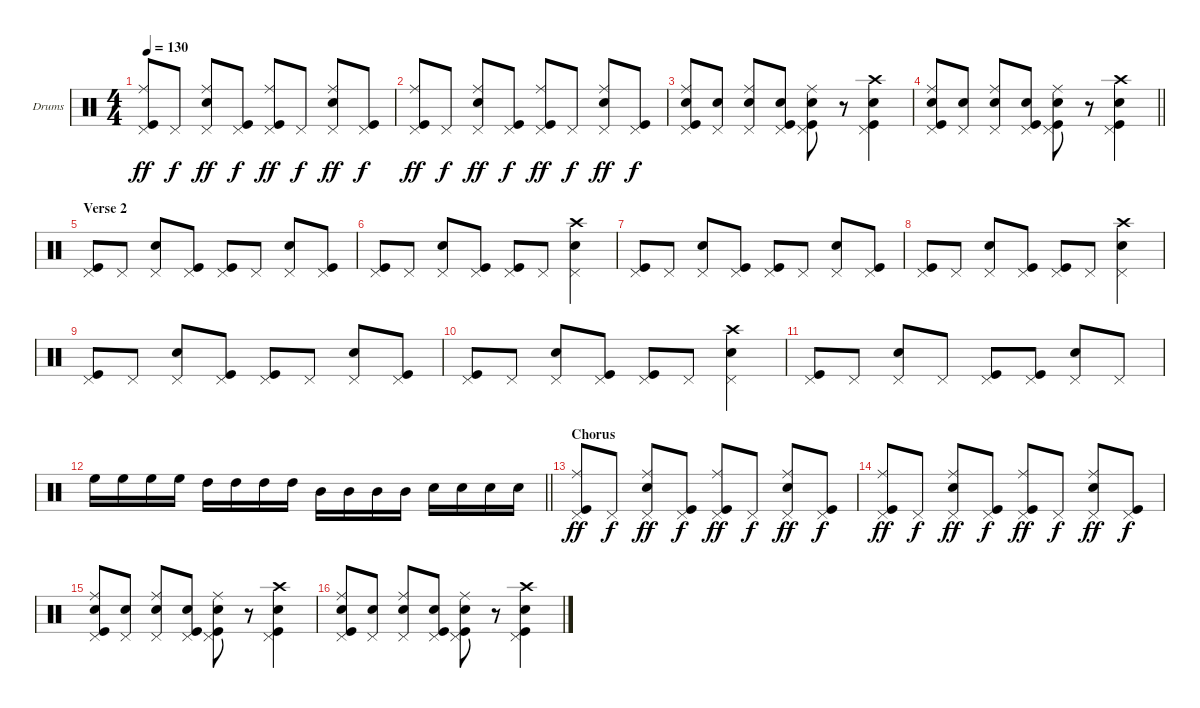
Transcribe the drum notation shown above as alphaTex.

\bracketExtendMode groupsimilarinstruments
\firstSystemTrackNameOrientation horizontal
\otherSystemsTrackNameOrientation horizontal
\track ("Drumkit" "Drums") {instrument percussion}
\staff {score}
\articulation defaults
\ts (4 4)
\tempo 130
\clef neutral
\ks c
("Ride (middle)" "Pedal Hi-Hat (hit)" "Kick (hit)").8{dy ff} "Pedal Hi-Hat (hit)".8{dy f} ("Ride (middle)" "Snare (hit) 2" "Pedal Hi-Hat (hit)").8{dy ff} ("Pedal Hi-Hat (hit)" "Kick (hit)").8{dy f} ("Ride (middle)" "Pedal Hi-Hat (hit)" "Kick (hit)").8{dy ff} "Pedal Hi-Hat (hit)".8{dy f} ("Ride (middle)" "Snare (hit) 2" "Pedal Hi-Hat (hit)").8{dy ff} ("Pedal Hi-Hat (hit)" "Kick (hit)").8{dy f} |
("Ride (middle)" "Pedal Hi-Hat (hit)" "Kick (hit)").8{dy ff} "Pedal Hi-Hat (hit)".8{dy f} ("Ride (middle)" "Snare (hit) 2" "Pedal Hi-Hat (hit)").8{dy ff} ("Pedal Hi-Hat (hit)" "Kick (hit)").8{dy f} ("Ride (middle)" "Pedal Hi-Hat (hit)" "Kick (hit)").8{dy ff} "Pedal Hi-Hat (hit)".8{dy f} ("Ride (middle)" "Snare (hit) 2" "Pedal Hi-Hat (hit)").8{dy ff} ("Pedal Hi-Hat (hit)" "Kick (hit)").8{dy f} |
("Ride (middle)" "Pedal Hi-Hat (hit)" "Snare (hit) 2" "Kick (hit)").8 ("Pedal Hi-Hat (hit)" "Snare (hit) 2").8 ("Ride (middle)" "Pedal Hi-Hat (hit)" "Snare (hit) 2").8 ("Pedal Hi-Hat (hit)" "Snare (hit) 2" "Kick (hit)").8 ("Ride (middle)" "Pedal Hi-Hat (hit)" "Snare (hit) 2" "Kick (hit)").8 r.8 ("Crash high (hit)" "Pedal Hi-Hat (hit)" "Snare (hit) 2" "Kick (hit)").4 |
\barLineRight lightlight
("Ride (middle)" "Pedal Hi-Hat (hit)" "Snare (hit) 2" "Kick (hit)").8 ("Pedal Hi-Hat (hit)" "Snare (hit) 2").8 ("Ride (middle)" "Pedal Hi-Hat (hit)" "Snare (hit) 2").8 ("Pedal Hi-Hat (hit)" "Snare (hit) 2" "Kick (hit)").8 ("Ride (middle)" "Pedal Hi-Hat (hit)" "Snare (hit) 2" "Kick (hit)").8 r.8 ("Crash high (hit)" "Pedal Hi-Hat (hit)" "Snare (hit) 2" "Kick (hit)").4 |
\section ("" "Verse 2")
("Pedal Hi-Hat (hit)" "Kick (hit)").8 "Pedal Hi-Hat (hit)".8 ("Snare (hit) 2" "Pedal Hi-Hat (hit)").8 ("Pedal Hi-Hat (hit)" "Kick (hit)").8 ("Pedal Hi-Hat (hit)" "Kick (hit)").8 "Pedal Hi-Hat (hit)".8 ("Snare (hit) 2" "Pedal Hi-Hat (hit)").8 ("Pedal Hi-Hat (hit)" "Kick (hit)").8 |
("Pedal Hi-Hat (hit)" "Kick (hit)").8 "Pedal Hi-Hat (hit)".8 ("Snare (hit) 2" "Pedal Hi-Hat (hit)").8 ("Pedal Hi-Hat (hit)" "Kick (hit)").8 ("Pedal Hi-Hat (hit)" "Kick (hit)").8 "Pedal Hi-Hat (hit)".8 ("Crash high (hit)" "Snare (hit) 2" "Pedal Hi-Hat (hit)").4 |
("Pedal Hi-Hat (hit)" "Kick (hit)").8 "Pedal Hi-Hat (hit)".8 ("Snare (hit) 2" "Pedal Hi-Hat (hit)").8 ("Pedal Hi-Hat (hit)" "Kick (hit)").8 ("Pedal Hi-Hat (hit)" "Kick (hit)").8 "Pedal Hi-Hat (hit)".8 ("Snare (hit) 2" "Pedal Hi-Hat (hit)").8 ("Pedal Hi-Hat (hit)" "Kick (hit)").8 |
("Pedal Hi-Hat (hit)" "Kick (hit)").8 "Pedal Hi-Hat (hit)".8 ("Snare (hit) 2" "Pedal Hi-Hat (hit)").8 ("Pedal Hi-Hat (hit)" "Kick (hit)").8 ("Pedal Hi-Hat (hit)" "Kick (hit)").8 "Pedal Hi-Hat (hit)".8 ("Crash high (hit)" "Snare (hit) 2" "Pedal Hi-Hat (hit)").4 |
("Pedal Hi-Hat (hit)" "Kick (hit)").8 "Pedal Hi-Hat (hit)".8 ("Snare (hit) 2" "Pedal Hi-Hat (hit)").8 ("Pedal Hi-Hat (hit)" "Kick (hit)").8 ("Pedal Hi-Hat (hit)" "Kick (hit)").8 "Pedal Hi-Hat (hit)".8 ("Snare (hit) 2" "Pedal Hi-Hat (hit)").8 ("Pedal Hi-Hat (hit)" "Kick (hit)").8 |
("Pedal Hi-Hat (hit)" "Kick (hit)").8 "Pedal Hi-Hat (hit)".8 ("Snare (hit) 2" "Pedal Hi-Hat (hit)").8 ("Pedal Hi-Hat (hit)" "Kick (hit)").8 ("Pedal Hi-Hat (hit)" "Kick (hit)").8 "Pedal Hi-Hat (hit)".8 ("Crash high (hit)" "Snare (hit) 2" "Pedal Hi-Hat (hit)").4 |
("Pedal Hi-Hat (hit)" "Kick (hit)").8 "Pedal Hi-Hat (hit)".8 ("Snare (hit) 2" "Pedal Hi-Hat (hit)").8 "Pedal Hi-Hat (hit)".8 ("Pedal Hi-Hat (hit)" "Kick (hit)").8 ("Pedal Hi-Hat (hit)" "Kick (hit)").8 ("Snare (hit) 2" "Pedal Hi-Hat (hit)").8 "Pedal Hi-Hat (hit)".8 |
\barLineRight lightlight "High Floor Tom (hit)".16 "High Floor Tom (hit)".16 "High Floor Tom (hit)".16 "High Floor Tom (hit)".16 "High Tom (hit)".16 "High Tom (hit)".16 "High Tom (hit)".16 "High Tom (hit)".16 "Mid Tom (hit)".16 "Mid Tom (hit)".16 "Mid Tom (hit)".16 "Mid Tom (hit)".16 "Snare (hit) 2".16 "Snare (hit) 2".16 "Snare (hit) 2".16 "Snare (hit) 2".16
|
\section ("" "Chorus")
("Ride (middle)" "Pedal Hi-Hat (hit)" "Kick (hit)").8{dy ff} "Pedal Hi-Hat (hit)".8{dy f} ("Ride (middle)" "Snare (hit) 2" "Pedal Hi-Hat (hit)").8{dy ff} ("Pedal Hi-Hat (hit)" "Kick (hit)").8{dy f} ("Ride (middle)" "Pedal Hi-Hat (hit)" "Kick (hit)").8{dy ff} "Pedal Hi-Hat (hit)".8{dy f} ("Ride (middle)" "Snare (hit) 2" "Pedal Hi-Hat (hit)").8{dy ff} ("Pedal Hi-Hat (hit)" "Kick (hit)").8{dy f} |
("Ride (middle)" "Pedal Hi-Hat (hit)" "Kick (hit)").8{dy ff} "Pedal Hi-Hat (hit)".8{dy f} ("Ride (middle)" "Snare (hit) 2" "Pedal Hi-Hat (hit)").8{dy ff} ("Pedal Hi-Hat (hit)" "Kick (hit)").8{dy f} ("Ride (middle)" "Pedal Hi-Hat (hit)" "Kick (hit)").8{dy ff} "Pedal Hi-Hat (hit)".8{dy f} ("Ride (middle)" "Snare (hit) 2" "Pedal Hi-Hat (hit)").8{dy ff} ("Pedal Hi-Hat (hit)" "Kick (hit)").8{dy f} |
("Ride (middle)" "Pedal Hi-Hat (hit)" "Snare (hit) 2" "Kick (hit)").8 ("Pedal Hi-Hat (hit)" "Snare (hit) 2").8 ("Ride (middle)" "Pedal Hi-Hat (hit)" "Snare (hit) 2").8 ("Pedal Hi-Hat (hit)" "Snare (hit) 2" "Kick (hit)").8 ("Ride (middle)" "Pedal Hi-Hat (hit)" "Snare (hit) 2" "Kick (hit)").8 r.8 ("Crash high (hit)" "Pedal Hi-Hat (hit)" "Snare (hit) 2" "Kick (hit)").4 |
("Ride (middle)" "Pedal Hi-Hat (hit)" "Snare (hit) 2" "Kick (hit)").8 ("Pedal Hi-Hat (hit)" "Snare (hit) 2").8 ("Ride (middle)" "Pedal Hi-Hat (hit)" "Snare (hit) 2").8 ("Pedal Hi-Hat (hit)" "Snare (hit) 2" "Kick (hit)").8 ("Ride (middle)" "Pedal Hi-Hat (hit)" "Snare (hit) 2" "Kick (hit)").8 r.8 ("Crash high (hit)" "Pedal Hi-Hat (hit)" "Snare (hit) 2" "Kick (hit)").4
